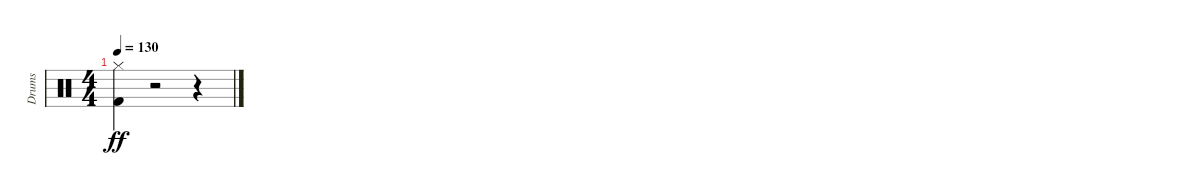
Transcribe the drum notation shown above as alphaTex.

\track ("Drums" "Drums") {instrument percussion}
\staff {score}
\articulation defaults
\ts (4 4)
\tempo 130
\clef neutral
\ks c
("Kick (hit) 2" "Hi-Hat (closed)").4{dy ff} r.2 r.4
